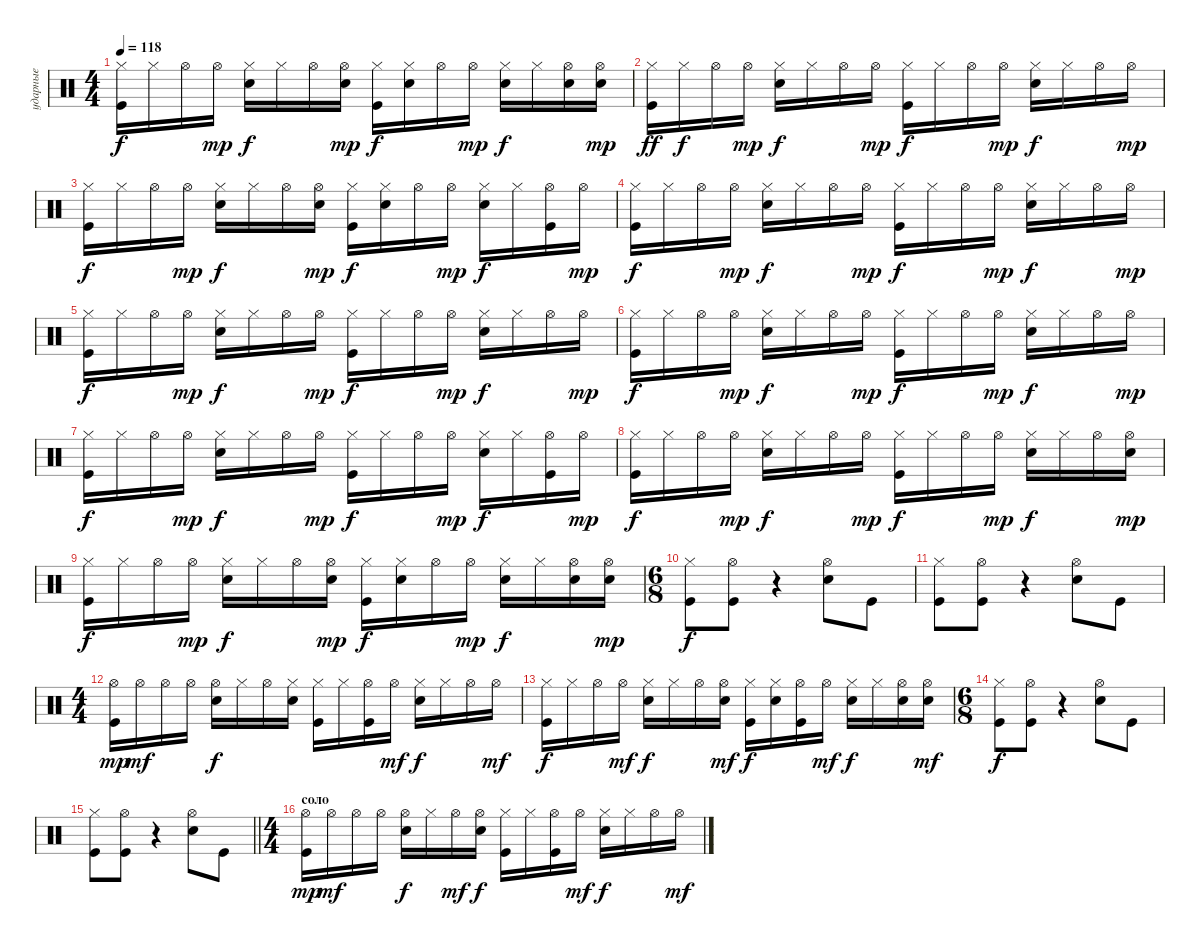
\track ("ударные" "ударные") {instrument percussion}
\staff {score}
\articulation defaults
\ts (4 4)
\tempo 118
\clef neutral
\ks c
("Hi-Hat (closed)" "Kick (hit)").16{dy f} "Hi-Hat (closed)".16 "Hi-Hat (open)".16 "Hi-Hat (open)".16{dy mp} ("Hi-Hat (closed)" "Electric Snare (hit)").16{dy f} "Hi-Hat (closed)".16 "Hi-Hat (open)".16 ("Electric Snare (hit)" "Hi-Hat (open)").16{dy mp} ("Kick (hit)" "Hi-Hat (closed)").16{dy f} ("Electric Snare (hit)" "Hi-Hat (closed)").16 "Hi-Hat (open)".16 "Hi-Hat (open)".16{dy mp} ("Hi-Hat (closed)" "Electric Snare (hit)").16{dy f} "Hi-Hat (closed)".16 ("Electric Snare (hit)" "Hi-Hat (open)").16 ("Electric Snare (hit)" "Hi-Hat (open)").16{dy mp} |
("Hi-Hat (closed)" "Kick (hit)").16{dy ff} "Hi-Hat (closed)".16{dy f} "Hi-Hat (open)".16 "Hi-Hat (open)".16{dy mp} ("Hi-Hat (closed)" "Electric Snare (hit)").16{dy f} "Hi-Hat (closed)".16 "Hi-Hat (open)".16 "Hi-Hat (open)".16{dy mp} ("Kick (hit)" "Hi-Hat (closed)").16{dy f} "Hi-Hat (closed)".16 "Hi-Hat (open)".16 "Hi-Hat (open)".16{dy mp} ("Hi-Hat (closed)" "Electric Snare (hit)").16{dy f} "Hi-Hat (closed)".16 "Hi-Hat (open)".16 "Hi-Hat (open)".16{dy mp} |
("Hi-Hat (closed)" "Kick (hit)").16{dy f} "Hi-Hat (closed)".16 "Hi-Hat (open)".16 "Hi-Hat (open)".16{dy mp} ("Hi-Hat (closed)" "Electric Snare (hit)").16{dy f} "Hi-Hat (closed)".16 "Hi-Hat (open)".16 ("Electric Snare (hit)" "Hi-Hat (open)").16{dy mp} ("Kick (hit)" "Hi-Hat (closed)").16{dy f} ("Electric Snare (hit)" "Hi-Hat (closed)").16 "Hi-Hat (open)".16 "Hi-Hat (open)".16{dy mp} ("Hi-Hat (closed)" "Electric Snare (hit)").16{dy f} "Hi-Hat (closed)".16 ("Kick (hit)" "Hi-Hat (open)").16 "Hi-Hat (open)".16{dy mp} |
("Hi-Hat (closed)" "Kick (hit)").16{dy f} "Hi-Hat (closed)".16 "Hi-Hat (open)".16 "Hi-Hat (open)".16{dy mp} ("Hi-Hat (closed)" "Electric Snare (hit)").16{dy f} "Hi-Hat (closed)".16 "Hi-Hat (open)".16 "Hi-Hat (open)".16{dy mp} ("Kick (hit)" "Hi-Hat (closed)").16{dy f} "Hi-Hat (closed)".16 "Hi-Hat (open)".16 "Hi-Hat (open)".16{dy mp} ("Hi-Hat (closed)" "Electric Snare (hit)").16{dy f} "Hi-Hat (closed)".16 "Hi-Hat (open)".16 "Hi-Hat (open)".16{dy mp} |
("Hi-Hat (closed)" "Kick (hit)").16{dy f} "Hi-Hat (closed)".16 "Hi-Hat (open)".16 "Hi-Hat (open)".16{dy mp} ("Hi-Hat (closed)" "Electric Snare (hit)").16{dy f} "Hi-Hat (closed)".16 "Hi-Hat (open)".16 "Hi-Hat (open)".16{dy mp} ("Kick (hit)" "Hi-Hat (closed)").16{dy f} "Hi-Hat (closed)".16 "Hi-Hat (open)".16 "Hi-Hat (open)".16{dy mp} ("Hi-Hat (closed)" "Electric Snare (hit)").16{dy f} "Hi-Hat (closed)".16 "Hi-Hat (open)".16 "Hi-Hat (open)".16{dy mp} |
("Hi-Hat (closed)" "Kick (hit)").16{dy f} "Hi-Hat (closed)".16 "Hi-Hat (open)".16 "Hi-Hat (open)".16{dy mp} ("Hi-Hat (closed)" "Electric Snare (hit)").16{dy f} "Hi-Hat (closed)".16 "Hi-Hat (open)".16 "Hi-Hat (open)".16{dy mp} ("Kick (hit)" "Hi-Hat (closed)").16{dy f} "Hi-Hat (closed)".16 "Hi-Hat (open)".16 "Hi-Hat (open)".16{dy mp} ("Hi-Hat (closed)" "Electric Snare (hit)").16{dy f} "Hi-Hat (closed)".16 "Hi-Hat (open)".16 "Hi-Hat (open)".16{dy mp} |
("Hi-Hat (closed)" "Kick (hit)").16{dy f} "Hi-Hat (closed)".16 "Hi-Hat (open)".16 "Hi-Hat (open)".16{dy mp} ("Electric Snare (hit)" "Hi-Hat (closed)").16{dy f} "Hi-Hat (closed)".16 "Hi-Hat (open)".16 "Hi-Hat (open)".16{dy mp} ("Kick (hit)" "Hi-Hat (closed)").16{dy f} "Hi-Hat (closed)".16 "Hi-Hat (open)".16 "Hi-Hat (open)".16{dy mp} ("Hi-Hat (closed)" "Electric Snare (hit)").16{dy f} "Hi-Hat (closed)".16 ("Kick (hit)" "Hi-Hat (open)").16 "Hi-Hat (open)".16{dy mp} |
("Hi-Hat (closed)" "Kick (hit)").16{dy f} "Hi-Hat (closed)".16 "Hi-Hat (open)".16 "Hi-Hat (open)".16{dy mp} ("Hi-Hat (closed)" "Electric Snare (hit)").16{dy f} "Hi-Hat (closed)".16 "Hi-Hat (open)".16 "Hi-Hat (open)".16{dy mp} ("Kick (hit)" "Hi-Hat (closed)").16{dy f} "Hi-Hat (closed)".16 "Hi-Hat (open)".16 "Hi-Hat (open)".16{dy mp} ("Hi-Hat (closed)" "Electric Snare (hit)").16{dy f} "Hi-Hat (closed)".16 "Hi-Hat (open)".16 ("Electric Snare (hit)" "Hi-Hat (open)").16{dy mp} |
("Hi-Hat (closed)" "Kick (hit)").16{dy f} "Hi-Hat (closed)".16 "Hi-Hat (open)".16 "Hi-Hat (open)".16{dy mp} ("Hi-Hat (closed)" "Electric Snare (hit)").16{dy f} "Hi-Hat (closed)".16 "Hi-Hat (open)".16 ("Electric Snare (hit)" "Hi-Hat (open)").16{dy mp} ("Kick (hit)" "Hi-Hat (closed)").16{dy f} ("Electric Snare (hit)" "Hi-Hat (closed)").16 "Hi-Hat (open)".16 "Hi-Hat (open)".16{dy mp} ("Hi-Hat (closed)" "Electric Snare (hit)").16{dy f} "Hi-Hat (closed)".16 ("Electric Snare (hit)" "Hi-Hat (open)").16 ("Electric Snare (hit)" "Hi-Hat (open)").16{dy mp} |
\ts (6 8)
("Hi-Hat (closed)" "Kick (hit)").8{dy f} ("Hi-Hat (open)" "Kick (hit)").8 r.4 ("Hi-Hat (open)" "Electric Snare (hit)").8 "Kick (hit)".8 |
("Hi-Hat (closed)" "Kick (hit)").8 ("Hi-Hat (open)" "Kick (hit)").8 r.4 ("Electric Snare (hit)" "Hi-Hat (open)").8 "Kick (hit)".8 |
\ts (4 4)
("Kick (hit)" "Hi-Hat (open)").16{dy mp} "Hi-Hat (open)".16{dy mf} "Hi-Hat (open)".16 "Hi-Hat (open)".16 ("Electric Snare (hit)" "Hi-Hat (open)").16{dy f} "Hi-Hat (closed)".16 "Hi-Hat (open)".16 ("Electric Snare (hit)" "Hi-Hat (closed)").16 ("Hi-Hat (closed)" "Kick (hit)").16 "Hi-Hat (closed)".16 ("Hi-Hat (open)" "Kick (hit)").16 "Hi-Hat (open)".16{dy mf} ("Electric Snare (hit)" "Hi-Hat (closed)").16{dy f} "Hi-Hat (closed)".16 "Hi-Hat (open)".16 "Hi-Hat (open)".16{dy mf} |
("Hi-Hat (closed)" "Kick (hit)").16{dy f} "Hi-Hat (closed)".16 "Hi-Hat (open)".16 "Hi-Hat (open)".16{dy mf} ("Hi-Hat (closed)" "Electric Snare (hit)").16{dy f} "Hi-Hat (closed)".16 "Hi-Hat (open)".16 ("Electric Snare (hit)" "Hi-Hat (open)").16{dy mf} ("Hi-Hat (closed)" "Kick (hit)").16{dy f} ("Electric Snare (hit)" "Hi-Hat (closed)").16 ("Hi-Hat (open)" "Kick (hit)").16 "Hi-Hat (open)".16{dy mf} ("Electric Snare (hit)" "Hi-Hat (closed)").16{dy f} "Hi-Hat (closed)".16 ("Hi-Hat (open)" "Electric Snare (hit)").16 ("Hi-Hat (open)" "Electric Snare (hit)").16{dy mf} |
\ts (6 8)
("Hi-Hat (closed)" "Kick (hit)").8{dy f} ("Hi-Hat (open)" "Kick (hit)").8 r.4 ("Hi-Hat (open)" "Electric Snare (hit)").8 "Kick (hit)".8 |
\barLineRight lightlight
("Hi-Hat (closed)" "Kick (hit)").8 ("Hi-Hat (open)" "Kick (hit)").8 r.4 ("Electric Snare (hit)" "Hi-Hat (open)").8 "Kick (hit)".8 |
\ts (4 4)
\section ("" "соло")
("Kick (hit)" "Hi-Hat (open)").16{dy mp} "Hi-Hat (open)".16{dy mf} "Hi-Hat (open)".16 "Hi-Hat (open)".16 ("Electric Snare (hit)" "Hi-Hat (open)").16{dy f} "Hi-Hat (closed)".16 "Hi-Hat (open)".16{dy mf} ("Electric Snare (hit)" "Hi-Hat (open)").16{dy f} ("Hi-Hat (closed)" "Kick (hit)").16 "Hi-Hat (closed)".16 ("Hi-Hat (open)" "Kick (hit)").16 "Hi-Hat (open)".16{dy mf} ("Electric Snare (hit)" "Hi-Hat (closed)").16{dy f} "Hi-Hat (closed)".16 "Hi-Hat (open)".16 "Hi-Hat (open)".16{dy mf}
